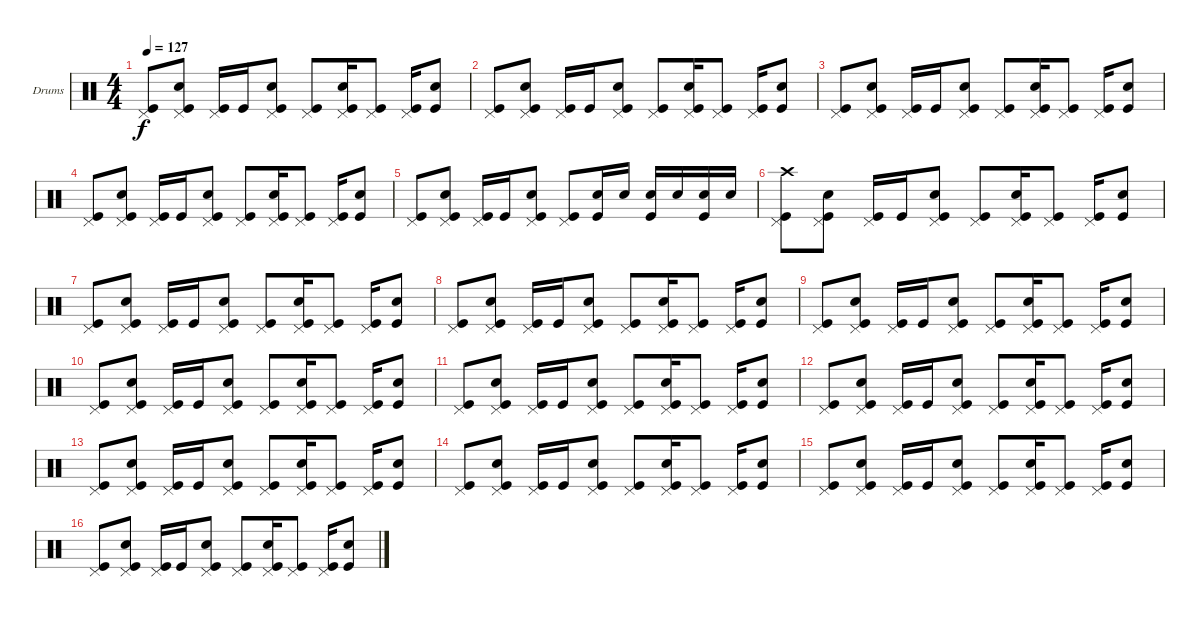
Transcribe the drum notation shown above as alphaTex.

\bracketExtendMode groupsimilarinstruments
\firstSystemTrackNameOrientation horizontal
\otherSystemsTrackNameOrientation horizontal
\track ("Drumkit" "Drums") {instrument percussion}
\staff {score}
\articulation defaults
\ts (4 4)
\tempo 127
\clef neutral
\ks c
("Pedal Hi-Hat (hit)" "Kick (hit)").8{dy f} ("Pedal Hi-Hat (hit)" "Snare (hit) 2" "Kick (hit)").8 ("Pedal Hi-Hat (hit)" "Kick (hit)").16 "Kick (hit)".16 ("Pedal Hi-Hat (hit)" "Snare (hit) 2" "Kick (hit)").8 ("Pedal Hi-Hat (hit)" "Kick (hit)").8 ("Pedal Hi-Hat (hit)" "Snare (hit) 2" "Kick (hit)").16 ("Pedal Hi-Hat (hit)" "Kick (hit)").8 ("Pedal Hi-Hat (hit)" "Kick (hit)").16 ("Snare (hit) 2" "Kick (hit)").8 |
("Pedal Hi-Hat (hit)" "Kick (hit)").8 ("Pedal Hi-Hat (hit)" "Snare (hit) 2" "Kick (hit)").8 ("Pedal Hi-Hat (hit)" "Kick (hit)").16 "Kick (hit)".16 ("Pedal Hi-Hat (hit)" "Snare (hit) 2" "Kick (hit)").8 ("Pedal Hi-Hat (hit)" "Kick (hit)").8 ("Pedal Hi-Hat (hit)" "Snare (hit) 2" "Kick (hit)").16 ("Pedal Hi-Hat (hit)" "Kick (hit)").8 ("Pedal Hi-Hat (hit)" "Kick (hit)").16 ("Snare (hit) 2" "Kick (hit)").8 |
("Pedal Hi-Hat (hit)" "Kick (hit)").8 ("Pedal Hi-Hat (hit)" "Snare (hit) 2" "Kick (hit)").8 ("Pedal Hi-Hat (hit)" "Kick (hit)").16 "Kick (hit)".16 ("Pedal Hi-Hat (hit)" "Snare (hit) 2" "Kick (hit)").8 ("Pedal Hi-Hat (hit)" "Kick (hit)").8 ("Pedal Hi-Hat (hit)" "Snare (hit) 2" "Kick (hit)").16 ("Pedal Hi-Hat (hit)" "Kick (hit)").8 ("Pedal Hi-Hat (hit)" "Kick (hit)").16 ("Snare (hit) 2" "Kick (hit)").8 |
("Pedal Hi-Hat (hit)" "Kick (hit)").8 ("Pedal Hi-Hat (hit)" "Snare (hit) 2" "Kick (hit)").8 ("Pedal Hi-Hat (hit)" "Kick (hit)").16 "Kick (hit)".16 ("Pedal Hi-Hat (hit)" "Snare (hit) 2" "Kick (hit)").8 ("Pedal Hi-Hat (hit)" "Kick (hit)").8 ("Pedal Hi-Hat (hit)" "Snare (hit) 2" "Kick (hit)").16 ("Pedal Hi-Hat (hit)" "Kick (hit)").8 ("Pedal Hi-Hat (hit)" "Kick (hit)").16 ("Snare (hit) 2" "Kick (hit)").8 |
("Pedal Hi-Hat (hit)" "Kick (hit)").8 ("Pedal Hi-Hat (hit)" "Snare (hit) 2" "Kick (hit)").8 ("Pedal Hi-Hat (hit)" "Kick (hit)").16 "Kick (hit)".16 ("Pedal Hi-Hat (hit)" "Snare (hit) 2" "Kick (hit)").8 ("Pedal Hi-Hat (hit)" "Kick (hit)").8 ("Snare (hit) 2" "Kick (hit)").16 "Snare (hit) 2".16 ("Snare (hit) 2" "Kick (hit)").16 "Snare (hit) 2".16 ("Snare (hit) 2" "Kick (hit)").16 "Snare (hit) 2".16 |
("Pedal Hi-Hat (hit)" "Crash high (hit)" "Kick (hit)").8 ("Pedal Hi-Hat (hit)" "Snare (hit) 2" "Kick (hit)").8 ("Pedal Hi-Hat (hit)" "Kick (hit)").16 "Kick (hit)".16 ("Pedal Hi-Hat (hit)" "Snare (hit) 2" "Kick (hit)").8 ("Pedal Hi-Hat (hit)" "Kick (hit)").8 ("Pedal Hi-Hat (hit)" "Snare (hit) 2" "Kick (hit)").16 ("Pedal Hi-Hat (hit)" "Kick (hit)").8 ("Pedal Hi-Hat (hit)" "Kick (hit)").16 ("Snare (hit) 2" "Kick (hit)").8 |
("Pedal Hi-Hat (hit)" "Kick (hit)").8 ("Pedal Hi-Hat (hit)" "Snare (hit) 2" "Kick (hit)").8 ("Pedal Hi-Hat (hit)" "Kick (hit)").16 "Kick (hit)".16 ("Pedal Hi-Hat (hit)" "Snare (hit) 2" "Kick (hit)").8 ("Pedal Hi-Hat (hit)" "Kick (hit)").8 ("Pedal Hi-Hat (hit)" "Snare (hit) 2" "Kick (hit)").16 ("Pedal Hi-Hat (hit)" "Kick (hit)").8 ("Pedal Hi-Hat (hit)" "Kick (hit)").16 ("Snare (hit) 2" "Kick (hit)").8 |
("Pedal Hi-Hat (hit)" "Kick (hit)").8 ("Pedal Hi-Hat (hit)" "Snare (hit) 2" "Kick (hit)").8 ("Pedal Hi-Hat (hit)" "Kick (hit)").16 "Kick (hit)".16 ("Pedal Hi-Hat (hit)" "Snare (hit) 2" "Kick (hit)").8 ("Pedal Hi-Hat (hit)" "Kick (hit)").8 ("Pedal Hi-Hat (hit)" "Snare (hit) 2" "Kick (hit)").16 ("Pedal Hi-Hat (hit)" "Kick (hit)").8 ("Pedal Hi-Hat (hit)" "Kick (hit)").16 ("Snare (hit) 2" "Kick (hit)").8 |
("Pedal Hi-Hat (hit)" "Kick (hit)").8 ("Pedal Hi-Hat (hit)" "Snare (hit) 2" "Kick (hit)").8 ("Pedal Hi-Hat (hit)" "Kick (hit)").16 "Kick (hit)".16 ("Pedal Hi-Hat (hit)" "Snare (hit) 2" "Kick (hit)").8 ("Pedal Hi-Hat (hit)" "Kick (hit)").8 ("Pedal Hi-Hat (hit)" "Snare (hit) 2" "Kick (hit)").16 ("Pedal Hi-Hat (hit)" "Kick (hit)").8 ("Pedal Hi-Hat (hit)" "Kick (hit)").16 ("Snare (hit) 2" "Kick (hit)").8 |
("Pedal Hi-Hat (hit)" "Kick (hit)").8 ("Pedal Hi-Hat (hit)" "Snare (hit) 2" "Kick (hit)").8 ("Pedal Hi-Hat (hit)" "Kick (hit)").16 "Kick (hit)".16 ("Pedal Hi-Hat (hit)" "Snare (hit) 2" "Kick (hit)").8 ("Pedal Hi-Hat (hit)" "Kick (hit)").8 ("Pedal Hi-Hat (hit)" "Snare (hit) 2" "Kick (hit)").16 ("Pedal Hi-Hat (hit)" "Kick (hit)").8 ("Pedal Hi-Hat (hit)" "Kick (hit)").16 ("Snare (hit) 2" "Kick (hit)").8 |
("Pedal Hi-Hat (hit)" "Kick (hit)").8 ("Pedal Hi-Hat (hit)" "Snare (hit) 2" "Kick (hit)").8 ("Pedal Hi-Hat (hit)" "Kick (hit)").16 "Kick (hit)".16 ("Pedal Hi-Hat (hit)" "Snare (hit) 2" "Kick (hit)").8 ("Pedal Hi-Hat (hit)" "Kick (hit)").8 ("Pedal Hi-Hat (hit)" "Snare (hit) 2" "Kick (hit)").16 ("Pedal Hi-Hat (hit)" "Kick (hit)").8 ("Pedal Hi-Hat (hit)" "Kick (hit)").16 ("Snare (hit) 2" "Kick (hit)").8 |
("Pedal Hi-Hat (hit)" "Kick (hit)").8 ("Pedal Hi-Hat (hit)" "Snare (hit) 2" "Kick (hit)").8 ("Pedal Hi-Hat (hit)" "Kick (hit)").16 "Kick (hit)".16 ("Pedal Hi-Hat (hit)" "Snare (hit) 2" "Kick (hit)").8 ("Pedal Hi-Hat (hit)" "Kick (hit)").8 ("Pedal Hi-Hat (hit)" "Snare (hit) 2" "Kick (hit)").16 ("Pedal Hi-Hat (hit)" "Kick (hit)").8 ("Pedal Hi-Hat (hit)" "Kick (hit)").16 ("Snare (hit) 2" "Kick (hit)").8 |
("Pedal Hi-Hat (hit)" "Kick (hit)").8 ("Pedal Hi-Hat (hit)" "Snare (hit) 2" "Kick (hit)").8 ("Pedal Hi-Hat (hit)" "Kick (hit)").16 "Kick (hit)".16 ("Pedal Hi-Hat (hit)" "Snare (hit) 2" "Kick (hit)").8 ("Pedal Hi-Hat (hit)" "Kick (hit)").8 ("Pedal Hi-Hat (hit)" "Snare (hit) 2" "Kick (hit)").16 ("Pedal Hi-Hat (hit)" "Kick (hit)").8 ("Pedal Hi-Hat (hit)" "Kick (hit)").16 ("Snare (hit) 2" "Kick (hit)").8 |
("Pedal Hi-Hat (hit)" "Kick (hit)").8 ("Pedal Hi-Hat (hit)" "Snare (hit) 2" "Kick (hit)").8 ("Pedal Hi-Hat (hit)" "Kick (hit)").16 "Kick (hit)".16 ("Pedal Hi-Hat (hit)" "Snare (hit) 2" "Kick (hit)").8 ("Pedal Hi-Hat (hit)" "Kick (hit)").8 ("Pedal Hi-Hat (hit)" "Snare (hit) 2" "Kick (hit)").16 ("Pedal Hi-Hat (hit)" "Kick (hit)").8 ("Pedal Hi-Hat (hit)" "Kick (hit)").16 ("Snare (hit) 2" "Kick (hit)").8 |
("Pedal Hi-Hat (hit)" "Kick (hit)").8 ("Pedal Hi-Hat (hit)" "Snare (hit) 2" "Kick (hit)").8 ("Pedal Hi-Hat (hit)" "Kick (hit)").16 "Kick (hit)".16 ("Pedal Hi-Hat (hit)" "Snare (hit) 2" "Kick (hit)").8 ("Pedal Hi-Hat (hit)" "Kick (hit)").8 ("Pedal Hi-Hat (hit)" "Snare (hit) 2" "Kick (hit)").16 ("Pedal Hi-Hat (hit)" "Kick (hit)").8 ("Pedal Hi-Hat (hit)" "Kick (hit)").16 ("Snare (hit) 2" "Kick (hit)").8 |
("Pedal Hi-Hat (hit)" "Kick (hit)").8 ("Pedal Hi-Hat (hit)" "Snare (hit) 2" "Kick (hit)").8 ("Pedal Hi-Hat (hit)" "Kick (hit)").16 "Kick (hit)".16 ("Pedal Hi-Hat (hit)" "Snare (hit) 2" "Kick (hit)").8 ("Pedal Hi-Hat (hit)" "Kick (hit)").8 ("Pedal Hi-Hat (hit)" "Snare (hit) 2" "Kick (hit)").16 ("Pedal Hi-Hat (hit)" "Kick (hit)").8 ("Pedal Hi-Hat (hit)" "Kick (hit)").16 ("Snare (hit) 2" "Kick (hit)").8
